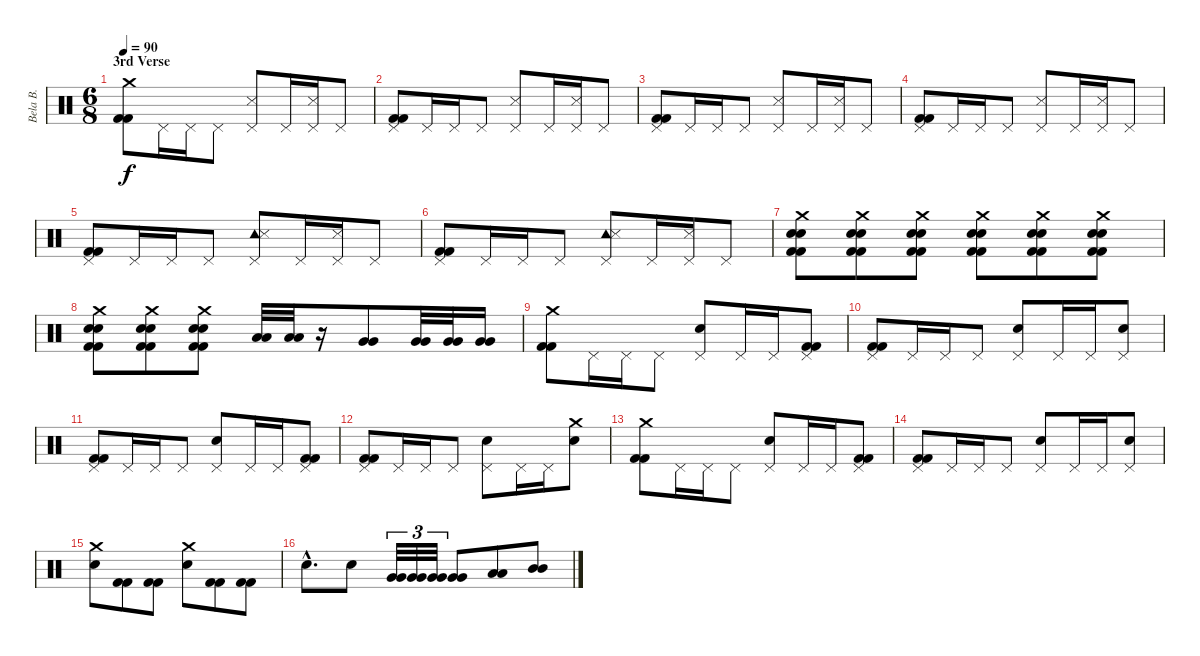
\track ("Bela B." "Bela B.") {instrument percussion}
\staff {score}
\articulation defaults
\ts (6 8)
\section ("" "3rd Verse")
\tempo 90
\clef neutral
\ks aminor
("Crash medium (hit)" "Kick (hit) 2" "Kick (hit) 2").8{dy f} "Pedal Hi-Hat (hit)".16 "Pedal Hi-Hat (hit)".16 "Pedal Hi-Hat (hit)".8 ("Pedal Hi-Hat (hit)" "Snare (side stick) 3").8 "Pedal Hi-Hat (hit)".16 ("Pedal Hi-Hat (hit)" "Snare (side stick) 3").16 "Pedal Hi-Hat (hit)".8 |
("Pedal Hi-Hat (hit)" "Kick (hit) 2" "Kick (hit) 2").8 "Pedal Hi-Hat (hit)".16 "Pedal Hi-Hat (hit)".16 "Pedal Hi-Hat (hit)".8 ("Pedal Hi-Hat (hit)" "Snare (side stick) 3").8 "Pedal Hi-Hat (hit)".16 ("Pedal Hi-Hat (hit)" "Snare (side stick) 3").16 "Pedal Hi-Hat (hit)".8 |
("Pedal Hi-Hat (hit)" "Kick (hit) 2" "Kick (hit) 2").8 "Pedal Hi-Hat (hit)".16 "Pedal Hi-Hat (hit)".16 "Pedal Hi-Hat (hit)".8 ("Pedal Hi-Hat (hit)" "Snare (side stick) 3").8 "Pedal Hi-Hat (hit)".16 ("Pedal Hi-Hat (hit)" "Snare (side stick) 3").16 "Pedal Hi-Hat (hit)".8 |
("Pedal Hi-Hat (hit)" "Kick (hit) 2" "Kick (hit) 2").8 "Pedal Hi-Hat (hit)".16 "Pedal Hi-Hat (hit)".16 "Pedal Hi-Hat (hit)".8 ("Pedal Hi-Hat (hit)" "Snare (side stick) 3").8 "Pedal Hi-Hat (hit)".16 ("Pedal Hi-Hat (hit)" "Snare (side stick) 3").16 "Pedal Hi-Hat (hit)".8 |
("Pedal Hi-Hat (hit)" "Kick (hit) 2" "Kick (hit) 2").8 "Pedal Hi-Hat (hit)".16 "Pedal Hi-Hat (hit)".16 "Pedal Hi-Hat (hit)".8 ("Pedal Hi-Hat (hit)" "Tambourine (hit)" "Snare (side stick) 3").8 "Pedal Hi-Hat (hit)".16 ("Pedal Hi-Hat (hit)" "Snare (side stick) 3").16 "Pedal Hi-Hat (hit)".8 |
("Pedal Hi-Hat (hit)" "Kick (hit) 2" "Kick (hit) 2").8 "Pedal Hi-Hat (hit)".16 "Pedal Hi-Hat (hit)".16 "Pedal Hi-Hat (hit)".8 ("Pedal Hi-Hat (hit)" "Tambourine (hit)" "Snare (side stick) 3").8 "Pedal Hi-Hat (hit)".16 ("Pedal Hi-Hat (hit)" "Snare (side stick) 3").16 "Pedal Hi-Hat (hit)".8 |
("Crash medium (hit)" "Electric Snare (hit)" "Snare (hit) 2" "Kick (hit) 2" "Kick (hit) 2").8 ("Crash medium (hit)" "Electric Snare (hit)" "Snare (hit) 2" "Kick (hit) 2" "Kick (hit) 2").8 ("Crash medium (hit)" "Electric Snare (hit)" "Snare (hit) 2" "Kick (hit) 2" "Kick (hit) 2").8 ("Crash medium (hit)" "Electric Snare (hit)" "Snare (hit) 2" "Kick (hit) 2" "Kick (hit) 2").8 ("Crash medium (hit)" "Electric Snare (hit)" "Snare (hit) 2" "Kick (hit) 2" "Kick (hit) 2").8 ("Crash medium (hit)" "Electric Snare (hit)" "Snare (hit) 2" "Kick (hit) 2" "Kick (hit) 2").8 |
("Crash medium (hit)" "Electric Snare (hit)" "Snare (hit) 2" "Kick (hit) 2" "Kick (hit) 2").8 ("Crash medium (hit)" "Electric Snare (hit)" "Snare (hit) 2" "Kick (hit) 2" "Kick (hit) 2").8 ("Crash medium (hit)" "Electric Snare (hit)" "Snare (hit) 2" "Kick (hit) 2" "Kick (hit) 2").8 ("Low Tom (hit)" "Low Tom (hit)").32 ("Low Tom (hit)" "Low Tom (hit)").32 r.16 ("Very Low Tom (hit)" "Very Low Tom (hit)").8 ("Very Low Tom (hit)" "Very Low Tom (hit)").32 ("Very Low Tom (hit)" "Very Low Tom (hit)").32 ("Very Low Tom (hit)" "Very Low Tom (hit)").16 |
("Crash medium (hit)" "Kick (hit) 2" "Kick (hit) 2").8 "Pedal Hi-Hat (hit)".16 "Pedal Hi-Hat (hit)".16 "Pedal Hi-Hat (hit)".8 ("Pedal Hi-Hat (hit)" "Snare (hit) 2").8 "Pedal Hi-Hat (hit)".16 "Pedal Hi-Hat (hit)".16 ("Pedal Hi-Hat (hit)" "Kick (hit) 2" "Kick (hit) 2").8 |
("Pedal Hi-Hat (hit)" "Kick (hit) 2" "Kick (hit) 2").8 "Pedal Hi-Hat (hit)".16 "Pedal Hi-Hat (hit)".16 "Pedal Hi-Hat (hit)".8 ("Pedal Hi-Hat (hit)" "Snare (hit) 2").8 "Pedal Hi-Hat (hit)".16 "Pedal Hi-Hat (hit)".16 ("Pedal Hi-Hat (hit)" "Snare (hit) 2").8 |
("Pedal Hi-Hat (hit)" "Kick (hit) 2" "Kick (hit) 2").8 "Pedal Hi-Hat (hit)".16 "Pedal Hi-Hat (hit)".16 "Pedal Hi-Hat (hit)".8 ("Pedal Hi-Hat (hit)" "Snare (hit) 2").8 "Pedal Hi-Hat (hit)".16 "Pedal Hi-Hat (hit)".16 ("Pedal Hi-Hat (hit)" "Kick (hit) 2" "Kick (hit) 2").8 |
("Pedal Hi-Hat (hit)" "Kick (hit) 2" "Kick (hit) 2").8 "Pedal Hi-Hat (hit)".16 "Pedal Hi-Hat (hit)".16 "Pedal Hi-Hat (hit)".8 ("Pedal Hi-Hat (hit)" "Snare (hit) 2").8 "Pedal Hi-Hat (hit)".16 "Pedal Hi-Hat (hit)".16 ("Crash medium (hit)" "Snare (hit) 2").8 |
("Crash medium (hit)" "Kick (hit) 2" "Kick (hit) 2").8 "Pedal Hi-Hat (hit)".16 "Pedal Hi-Hat (hit)".16 "Pedal Hi-Hat (hit)".8 ("Pedal Hi-Hat (hit)" "Snare (hit) 2").8 "Pedal Hi-Hat (hit)".16 "Pedal Hi-Hat (hit)".16 ("Pedal Hi-Hat (hit)" "Kick (hit) 2" "Kick (hit) 2").8 |
("Pedal Hi-Hat (hit)" "Kick (hit) 2" "Kick (hit) 2").8 "Pedal Hi-Hat (hit)".16 "Pedal Hi-Hat (hit)".16 "Pedal Hi-Hat (hit)".8 ("Pedal Hi-Hat (hit)" "Snare (hit) 2").8 "Pedal Hi-Hat (hit)".16 "Pedal Hi-Hat (hit)".16 ("Pedal Hi-Hat (hit)" "Snare (hit) 2").8 |
("Crash medium (hit)" "Snare (hit) 2").8 ("Kick (hit) 2" "Kick (hit) 2").8 ("Kick (hit) 2" "Kick (hit) 2").8 ("Crash medium (hit)" "Snare (hit) 2").8 ("Kick (hit) 2" "Kick (hit) 2").8 ("Kick (hit) 2" "Kick (hit) 2").8 |
"Snare (hit) 2"{hac}.8{d} "Snare (hit) 2".8 ("Very Low Tom (hit)" "Very Low Tom (hit)").32{tu (3 2)} ("Very Low Tom (hit)" "Very Low Tom (hit)").32{tu (3 2)} ("Very Low Tom (hit)" "Very Low Tom (hit)").32{tu (3 2)} ("Very Low Tom (hit)" "Very Low Tom (hit)").8 ("Low Tom (hit)" "Low Tom (hit)").8 ("Mid Tom (hit)" "Mid Tom (hit)").8
